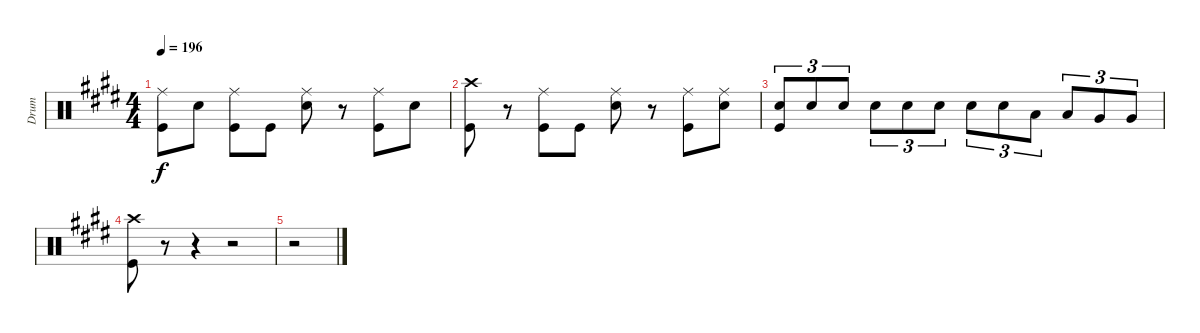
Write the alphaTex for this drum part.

\track ("Drum" "Drum") {instrument percussion}
\staff {score}
\articulation defaults
\ts (4 4)
\tempo 196
\clef neutral
\ks e
("Ride (middle)" "Kick (hit)").8{dy f} "Snare (hit) 2".8 ("Ride (middle)" "Kick (hit)").8 "Kick (hit)".8 ("Ride (middle)" "Snare (hit) 2").8 r.8 ("Ride (middle)" "Kick (hit)").8 "Snare (hit) 2".8 |
("Crash high (hit)" "Kick (hit)").8 r.8 ("Ride (middle)" "Kick (hit)").8 "Kick (hit)".8 ("Ride (middle)" "Snare (hit) 2").8 r.8 ("Ride (middle)" "Kick (hit)").8 ("Ride (middle)" "Snare (hit) 2").8 |
("Snare (hit) 2" "Kick (hit)").8{tu (3 2)} "Snare (hit) 2".8{tu (3 2)} "Snare (hit) 2".8{tu (3 2)} "Snare (hit) 2".8{tu (3 2)} "Snare (hit) 2".8{tu (3 2)} "Snare (hit) 2".8{tu (3 2)} "Snare (hit) 2".8{tu (3 2)} "Snare (hit) 2".8{tu (3 2)} "Low Tom (hit)".8{tu (3 2)} "Low Tom (hit)".8{tu (3 2)} "Very Low Tom (hit)".8{tu (3 2)} "Very Low Tom (hit)".8{tu (3 2)} |
("Crash high (hit)" "Kick (hit)").8 r.8 r.4 r.2 |
r.2
